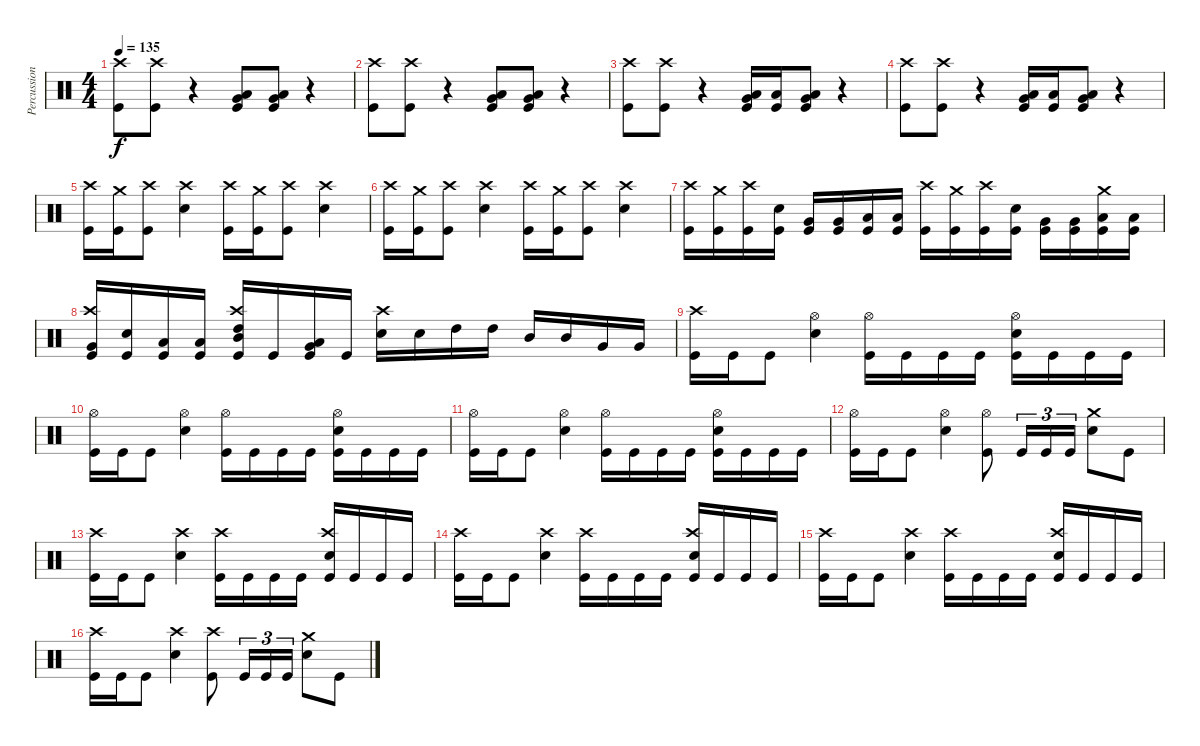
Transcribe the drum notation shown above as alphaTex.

\track ("Percussion" "Percussion") {instrument percussion}
\staff {score}
\articulation defaults
\ts (4 4)
\tempo 135
\clef neutral
\ks c
("Kick (hit)" "Crash high (hit)").8{dy f} ("Crash high (hit)" "Kick (hit)").8 r.4 ("Kick (hit)" "Low Floor Tom (hit)" "Very Low Tom (hit)").8 ("Low Floor Tom (hit)" "Kick (hit)" "Very Low Tom (hit)").8 r.4 |
("Kick (hit)" "Crash high (hit)").8 ("Crash high (hit)" "Kick (hit)").8 r.4 ("Kick (hit)" "Low Floor Tom (hit)" "Very Low Tom (hit)").8 ("Low Floor Tom (hit)" "Kick (hit)" "Very Low Tom (hit)").8 r.4 |
("Kick (hit)" "Crash high (hit)").8 ("Crash high (hit)" "Kick (hit)").8 r.4 ("Kick (hit)" "Low Floor Tom (hit)" "Very Low Tom (hit)").16 ("Kick (hit)" "Low Floor Tom (hit)").16 ("Low Floor Tom (hit)" "Kick (hit)" "Very Low Tom (hit)").8 r.4 |
("Kick (hit)" "Crash high (hit)").8 ("Crash high (hit)" "Kick (hit)").8 r.4 ("Kick (hit)" "Low Floor Tom (hit)" "Very Low Tom (hit)").16 ("Kick (hit)" "Low Floor Tom (hit)").16 ("Low Floor Tom (hit)" "Kick (hit)" "Very Low Tom (hit)").8 r.4 |
("Kick (hit)" "Crash high (hit)").16 ("Kick (hit)" "Crash medium (hit)").16 ("Crash high (hit)" "Kick (hit)").8 ("Crash high (hit)" "Snare (hit) 2").4 ("Kick (hit)" "Crash high (hit)").16 ("Kick (hit)" "Crash medium (hit)").16 ("Crash high (hit)" "Kick (hit)").8 ("Crash high (hit)" "Snare (hit) 2").4 |
("Kick (hit)" "Crash high (hit)").16 ("Kick (hit)" "Crash medium (hit)").16 ("Crash high (hit)" "Kick (hit)").8 ("Crash high (hit)" "Snare (hit) 2").4 ("Kick (hit)" "Crash high (hit)").16 ("Kick (hit)" "Crash medium (hit)").16 ("Crash high (hit)" "Kick (hit)").8 ("Crash high (hit)" "Snare (hit) 2").4 |
("Kick (hit)" "Crash high (hit)").16 ("Kick (hit)" "Crash medium (hit)").16 ("Crash high (hit)" "Kick (hit)").16 ("Snare (hit) 2" "Kick (hit)").16 ("Very Low Tom (hit)" "Kick (hit)").16 ("Very Low Tom (hit)" "Kick (hit)").16 ("Low Floor Tom (hit)" "Kick (hit)").16 ("Low Floor Tom (hit)" "Kick (hit)").16 ("Crash high (hit)" "Kick (hit)").16 ("Crash medium (hit)" "Kick (hit)").16 ("Crash high (hit)" "Kick (hit)").16 ("Snare (hit) 2" "Kick (hit)").16 ("Very Low Tom (hit)" "Kick (hit)").16 ("Very Low Tom (hit)" "Kick (hit)").16 ("Low Floor Tom (hit)" "Crash medium (hit)" "Kick (hit)").16 ("Low Floor Tom (hit)" "Kick (hit)").16 |
("Kick (hit)" "Crash high (hit)" "Very Low Tom (hit)").16 ("Kick (hit)" "Snare (hit) 2").16 ("Low Floor Tom (hit)" "Kick (hit)").16 ("Kick (hit)" "Low Floor Tom (hit)").16 ("Kick (hit)" "Crash high (hit)" "High Tom (hit)" "Mid Tom (hit)").16 "Kick (hit)".16 ("Kick (hit)" "Very Low Tom (hit)" "Low Floor Tom (hit)").16 "Kick (hit)".16 ("Snare (hit) 2" "Crash high (hit)").16 "Snare (hit) 2".16 "High Tom (hit)".16 "High Tom (hit)".16 "Mid Tom (hit)".16 "Mid Tom (hit)".16 "Very Low Tom (hit)".16 "Very Low Tom (hit)".16 |
("Crash high (hit)" "Kick (hit)").16 "Kick (hit)".16 "Kick (hit)".8 ("Hi-Hat (open)" "Snare (hit) 2").4 ("Kick (hit)" "Hi-Hat (open)").16 "Kick (hit)".16 "Kick (hit)".16 "Kick (hit)".16 ("Kick (hit)" "Hi-Hat (open)" "Snare (hit) 2").16 "Kick (hit)".16 "Kick (hit)".16 "Kick (hit)".16 |
("Hi-Hat (open)" "Kick (hit)").16 "Kick (hit)".16 "Kick (hit)".8 ("Hi-Hat (open)" "Snare (hit) 2").4 ("Kick (hit)" "Hi-Hat (open)").16 "Kick (hit)".16 "Kick (hit)".16 "Kick (hit)".16 ("Kick (hit)" "Hi-Hat (open)" "Snare (hit) 2").16 "Kick (hit)".16 "Kick (hit)".16 "Kick (hit)".16 |
("Hi-Hat (open)" "Kick (hit)").16 "Kick (hit)".16 "Kick (hit)".8 ("Hi-Hat (open)" "Snare (hit) 2").4 ("Kick (hit)" "Hi-Hat (open)").16 "Kick (hit)".16 "Kick (hit)".16 "Kick (hit)".16 ("Kick (hit)" "Hi-Hat (open)" "Snare (hit) 2").16 "Kick (hit)".16 "Kick (hit)".16 "Kick (hit)".16 |
("Hi-Hat (open)" "Kick (hit)").16 "Kick (hit)".16 "Kick (hit)".8 ("Hi-Hat (open)" "Snare (hit) 2").4 ("Kick (hit)" "Hi-Hat (open)").8 "Kick (hit)".16{tu (3 2)} "Kick (hit)".16{tu (3 2)} "Kick (hit)".16{tu (3 2)} ("Crash medium (hit)" "Snare (hit) 2").8 "Kick (hit)".8 |
("Crash high (hit)" "Kick (hit)").16 "Kick (hit)".16 "Kick (hit)".8 ("Crash high (hit)" "Snare (hit) 2").4 ("Kick (hit)" "Crash high (hit)").16 "Kick (hit)".16 "Kick (hit)".16 "Kick (hit)".16 ("Kick (hit)" "Crash high (hit)" "Snare (hit) 2").16 "Kick (hit)".16 "Kick (hit)".16 "Kick (hit)".16 |
("Crash high (hit)" "Kick (hit)").16 "Kick (hit)".16 "Kick (hit)".8 ("Crash high (hit)" "Snare (hit) 2").4 ("Kick (hit)" "Crash high (hit)").16 "Kick (hit)".16 "Kick (hit)".16 "Kick (hit)".16 ("Kick (hit)" "Crash high (hit)" "Snare (hit) 2").16 "Kick (hit)".16 "Kick (hit)".16 "Kick (hit)".16 |
("Crash high (hit)" "Kick (hit)").16 "Kick (hit)".16 "Kick (hit)".8 ("Crash high (hit)" "Snare (hit) 2").4 ("Kick (hit)" "Crash high (hit)").16 "Kick (hit)".16 "Kick (hit)".16 "Kick (hit)".16 ("Kick (hit)" "Crash high (hit)" "Snare (hit) 2").16 "Kick (hit)".16 "Kick (hit)".16 "Kick (hit)".16 |
("Crash high (hit)" "Kick (hit)").16 "Kick (hit)".16 "Kick (hit)".8 ("Crash high (hit)" "Snare (hit) 2").4 ("Kick (hit)" "Crash high (hit)").8 "Kick (hit)".16{tu (3 2)} "Kick (hit)".16{tu (3 2)} "Kick (hit)".16{tu (3 2)} ("Crash medium (hit)" "Snare (hit) 2").8 "Kick (hit)".8
